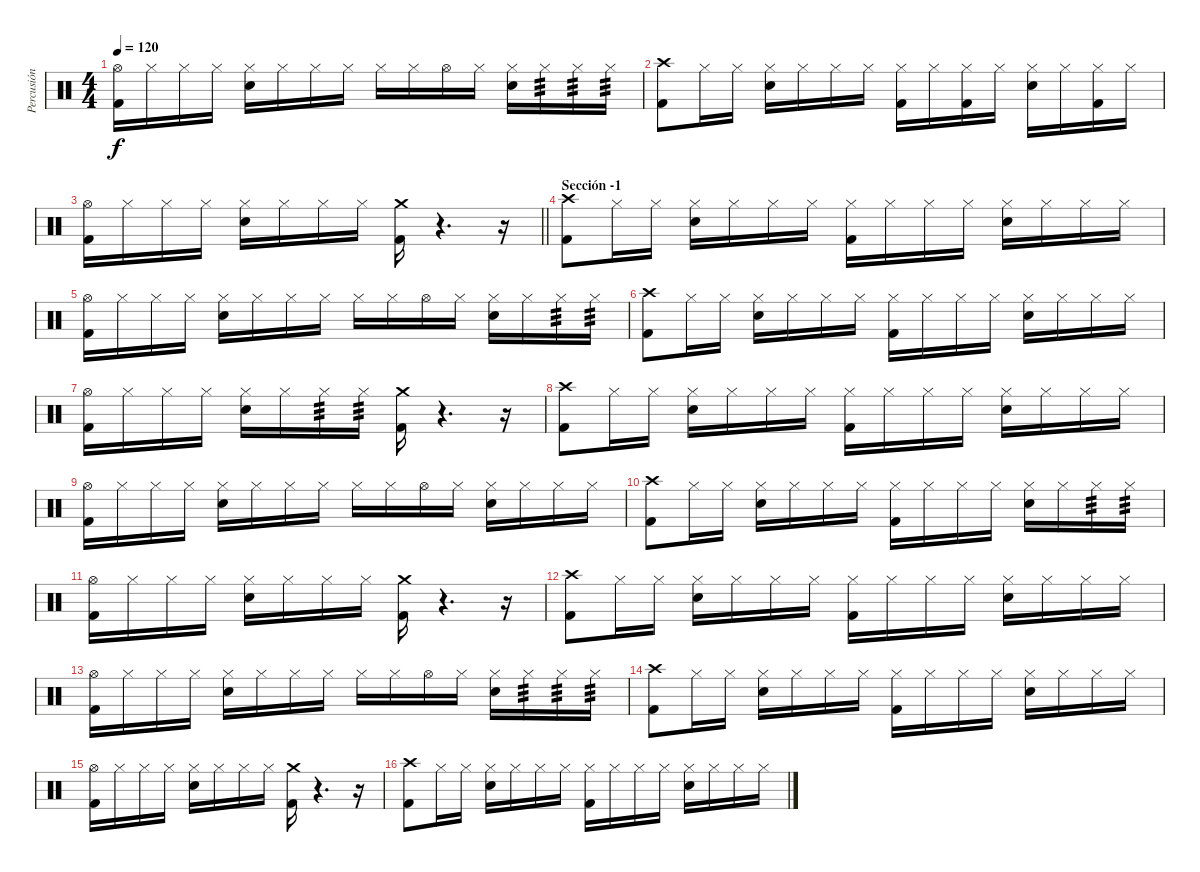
\track ("Percusión" "Percusión") {instrument percussion}
\staff {score}
\articulation defaults
\ts (4 4)
\tempo 120
\clef neutral
\ks c
("Hi-Hat (open)" "Kick (hit) 2").16{dy f} "Hi-Hat (closed)".16 "Hi-Hat (closed)".16 "Hi-Hat (closed)".16 ("Hi-Hat (closed)" "Electric Snare (hit)").16 "Hi-Hat (closed)".16 "Hi-Hat (closed)".16 "Hi-Hat (closed)".16 "Hi-Hat (closed)".16 "Hi-Hat (closed)".16 "Hi-Hat (open)".16 "Hi-Hat (closed)".16 ("Hi-Hat (closed)" "Electric Snare (hit)").16 "Hi-Hat (closed)".16{tp 3} "Hi-Hat (closed)".16{tp 3} "Hi-Hat (closed)".16{tp 3} |
("Crash high (hit)" "Kick (hit) 2").8 "Hi-Hat (closed)".16 "Hi-Hat (closed)".16 ("Hi-Hat (closed)" "Electric Snare (hit)").16 "Hi-Hat (closed)".16 "Hi-Hat (closed)".16 "Hi-Hat (closed)".16 ("Hi-Hat (closed)" "Kick (hit) 2").16 "Hi-Hat (closed)".16 ("Hi-Hat (closed)" "Kick (hit) 2").16 "Hi-Hat (closed)".16 ("Hi-Hat (closed)" "Electric Snare (hit)").16 "Hi-Hat (closed)".16 ("Hi-Hat (closed)" "Kick (hit) 2").16 "Hi-Hat (closed)".16 |
\barLineRight lightlight
("Hi-Hat (open)" "Kick (hit) 2").16 "Hi-Hat (closed)".16 "Hi-Hat (closed)".16 "Hi-Hat (closed)".16 ("Hi-Hat (closed)" "Electric Snare (hit)").16 "Hi-Hat (closed)".16 "Hi-Hat (closed)".16 "Hi-Hat (closed)".16 ("Crash medium (hit)" "Kick (hit) 2").16 r.4{d} r.16 |
\section ("" "Sección -1")
("Crash high (hit)" "Kick (hit) 2").8 "Hi-Hat (closed)".16 "Hi-Hat (closed)".16 ("Hi-Hat (closed)" "Electric Snare (hit)").16 "Hi-Hat (closed)".16 "Hi-Hat (closed)".16 "Hi-Hat (closed)".16 ("Hi-Hat (closed)" "Kick (hit) 2").16 "Hi-Hat (closed)".16 "Hi-Hat (closed)".16 "Hi-Hat (closed)".16 ("Hi-Hat (closed)" "Electric Snare (hit)").16 "Hi-Hat (closed)".16 "Hi-Hat (closed)".16 "Hi-Hat (closed)".16 |
("Hi-Hat (open)" "Kick (hit) 2").16 "Hi-Hat (closed)".16 "Hi-Hat (closed)".16 "Hi-Hat (closed)".16 ("Hi-Hat (closed)" "Electric Snare (hit)").16 "Hi-Hat (closed)".16 "Hi-Hat (closed)".16 "Hi-Hat (closed)".16 "Hi-Hat (closed)".16 "Hi-Hat (closed)".16 "Hi-Hat (open)".16 "Hi-Hat (closed)".16 ("Hi-Hat (closed)" "Electric Snare (hit)").16 "Hi-Hat (closed)".16 "Hi-Hat (closed)".16{tp 3} "Hi-Hat (closed)".16{tp 3} |
("Crash high (hit)" "Kick (hit) 2").8 "Hi-Hat (closed)".16 "Hi-Hat (closed)".16 ("Hi-Hat (closed)" "Electric Snare (hit)").16 "Hi-Hat (closed)".16 "Hi-Hat (closed)".16 "Hi-Hat (closed)".16 ("Hi-Hat (closed)" "Kick (hit) 2").16 "Hi-Hat (closed)".16 "Hi-Hat (closed)".16 "Hi-Hat (closed)".16 ("Hi-Hat (closed)" "Electric Snare (hit)").16 "Hi-Hat (closed)".16 "Hi-Hat (closed)".16 "Hi-Hat (closed)".16 |
("Hi-Hat (open)" "Kick (hit) 2").16 "Hi-Hat (closed)".16 "Hi-Hat (closed)".16 "Hi-Hat (closed)".16 ("Hi-Hat (closed)" "Electric Snare (hit)").16 "Hi-Hat (closed)".16 "Hi-Hat (closed)".16{tp 3} "Hi-Hat (closed)".16{tp 3} ("Crash medium (hit)" "Kick (hit) 2").16 r.4{d} r.16 |
("Crash high (hit)" "Kick (hit) 2").8 "Hi-Hat (closed)".16 "Hi-Hat (closed)".16 ("Hi-Hat (closed)" "Electric Snare (hit)").16 "Hi-Hat (closed)".16 "Hi-Hat (closed)".16 "Hi-Hat (closed)".16 ("Hi-Hat (closed)" "Kick (hit) 2").16 "Hi-Hat (closed)".16 "Hi-Hat (closed)".16 "Hi-Hat (closed)".16 ("Hi-Hat (closed)" "Electric Snare (hit)").16 "Hi-Hat (closed)".16 "Hi-Hat (closed)".16 "Hi-Hat (closed)".16 |
("Hi-Hat (open)" "Kick (hit) 2").16 "Hi-Hat (closed)".16 "Hi-Hat (closed)".16 "Hi-Hat (closed)".16 ("Hi-Hat (closed)" "Electric Snare (hit)").16 "Hi-Hat (closed)".16 "Hi-Hat (closed)".16 "Hi-Hat (closed)".16 "Hi-Hat (closed)".16 "Hi-Hat (closed)".16 "Hi-Hat (open)".16 "Hi-Hat (closed)".16 ("Hi-Hat (closed)" "Electric Snare (hit)").16 "Hi-Hat (closed)".16 "Hi-Hat (closed)".16 "Hi-Hat (closed)".16 |
("Crash high (hit)" "Kick (hit) 2").8 "Hi-Hat (closed)".16 "Hi-Hat (closed)".16 ("Hi-Hat (closed)" "Electric Snare (hit)").16 "Hi-Hat (closed)".16 "Hi-Hat (closed)".16 "Hi-Hat (closed)".16 ("Hi-Hat (closed)" "Kick (hit) 2").16 "Hi-Hat (closed)".16 "Hi-Hat (closed)".16 "Hi-Hat (closed)".16 ("Hi-Hat (closed)" "Electric Snare (hit)").16 "Hi-Hat (closed)".16 "Hi-Hat (closed)".16{tp 3} "Hi-Hat (closed)".16{tp 3} |
("Hi-Hat (open)" "Kick (hit) 2").16 "Hi-Hat (closed)".16 "Hi-Hat (closed)".16 "Hi-Hat (closed)".16 ("Hi-Hat (closed)" "Electric Snare (hit)").16 "Hi-Hat (closed)".16 "Hi-Hat (closed)".16 "Hi-Hat (closed)".16 ("Crash medium (hit)" "Kick (hit) 2").16 r.4{d} r.16 |
("Crash high (hit)" "Kick (hit) 2").8 "Hi-Hat (closed)".16 "Hi-Hat (closed)".16 ("Hi-Hat (closed)" "Electric Snare (hit)").16 "Hi-Hat (closed)".16 "Hi-Hat (closed)".16 "Hi-Hat (closed)".16 ("Hi-Hat (closed)" "Kick (hit) 2").16 "Hi-Hat (closed)".16 "Hi-Hat (closed)".16 "Hi-Hat (closed)".16 ("Hi-Hat (closed)" "Electric Snare (hit)").16 "Hi-Hat (closed)".16 "Hi-Hat (closed)".16 "Hi-Hat (closed)".16 |
("Hi-Hat (open)" "Kick (hit) 2").16 "Hi-Hat (closed)".16 "Hi-Hat (closed)".16 "Hi-Hat (closed)".16 ("Hi-Hat (closed)" "Electric Snare (hit)").16 "Hi-Hat (closed)".16 "Hi-Hat (closed)".16 "Hi-Hat (closed)".16 "Hi-Hat (closed)".16 "Hi-Hat (closed)".16 "Hi-Hat (open)".16 "Hi-Hat (closed)".16 ("Hi-Hat (closed)" "Electric Snare (hit)").16 "Hi-Hat (closed)".16{tp 3} "Hi-Hat (closed)".16{tp 3} "Hi-Hat (closed)".16{tp 3} |
("Crash high (hit)" "Kick (hit) 2").8 "Hi-Hat (closed)".16 "Hi-Hat (closed)".16 ("Hi-Hat (closed)" "Electric Snare (hit)").16 "Hi-Hat (closed)".16 "Hi-Hat (closed)".16 "Hi-Hat (closed)".16 ("Hi-Hat (closed)" "Kick (hit) 2").16 "Hi-Hat (closed)".16 "Hi-Hat (closed)".16 "Hi-Hat (closed)".16 ("Hi-Hat (closed)" "Electric Snare (hit)").16 "Hi-Hat (closed)".16 "Hi-Hat (closed)".16 "Hi-Hat (closed)".16 |
("Hi-Hat (open)" "Kick (hit) 2").16 "Hi-Hat (closed)".16 "Hi-Hat (closed)".16 "Hi-Hat (closed)".16 ("Hi-Hat (closed)" "Electric Snare (hit)").16 "Hi-Hat (closed)".16 "Hi-Hat (closed)".16 "Hi-Hat (closed)".16 ("Crash medium (hit)" "Kick (hit) 2").16 r.4{d} r.16 |
("Crash high (hit)" "Kick (hit) 2").8 "Hi-Hat (closed)".16 "Hi-Hat (closed)".16 ("Hi-Hat (closed)" "Electric Snare (hit)").16 "Hi-Hat (closed)".16 "Hi-Hat (closed)".16 "Hi-Hat (closed)".16 ("Hi-Hat (closed)" "Kick (hit) 2").16 "Hi-Hat (closed)".16 "Hi-Hat (closed)".16 "Hi-Hat (closed)".16 ("Hi-Hat (closed)" "Electric Snare (hit)").16 "Hi-Hat (closed)".16 "Hi-Hat (closed)".16 "Hi-Hat (closed)".16
